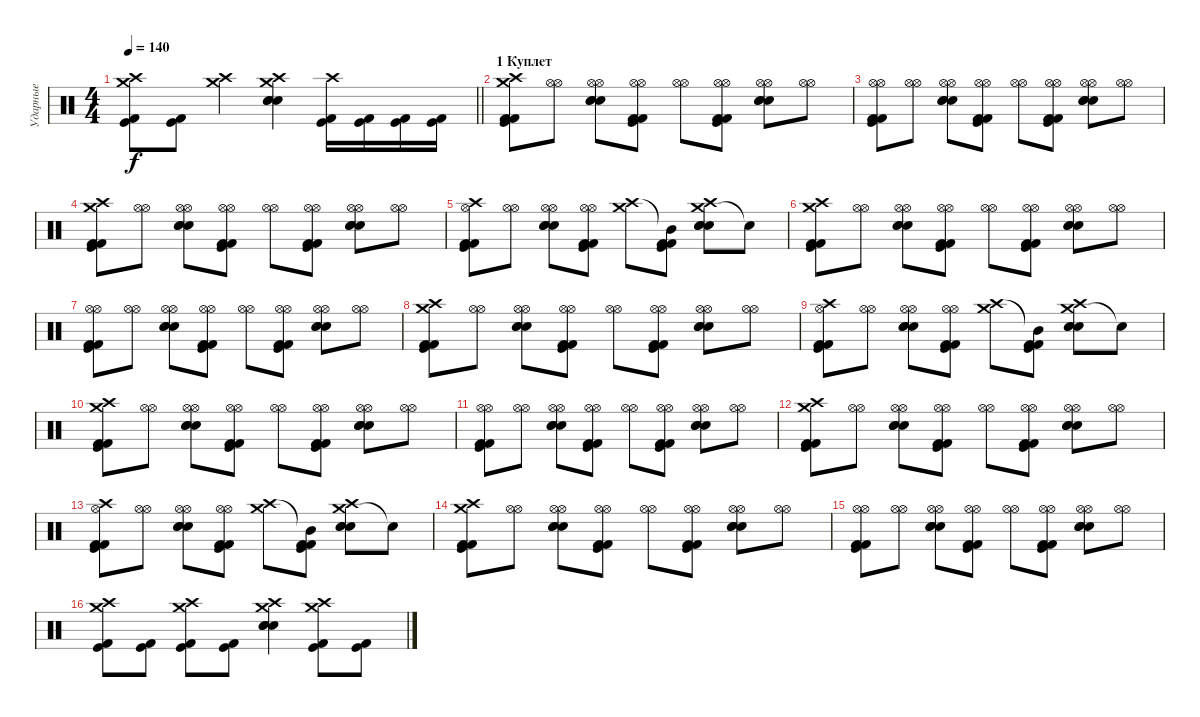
\track ("Ударные" "Ударные") {instrument percussion}
\staff {score}
\articulation defaults
\ts (4 4)
\tempo 140
\clef neutral
\barLineRight lightlight
\ks c
("Crash high (hit)" "Crash medium (hit)" "Kick (hit)" "Kick (hit) 2").8{dy f} ("Kick (hit)" "Kick (hit) 2").8 ("Crash high (hit)" "Crash medium (hit)").4 ("Crash high (hit)" "Crash medium (hit)" "Electric Snare (hit)" "Snare (hit) 2" "Electric Snare (hit)").4 ("Crash high (hit)" "Kick (hit)" "Kick (hit) 2").16 ("Kick (hit)" "Kick (hit) 2").16 ("Kick (hit)" "Kick (hit) 2").16 ("Kick (hit)" "Kick (hit) 2").16 |
\section ("" "1 Куплет")
("Crash high (hit)" "Crash medium (hit)" "Kick (hit) 2" "Kick (hit)" "Kick (hit) 2").8 ("Hi-Hat (open)" "Hi-Hat (open)").8 ("Hi-Hat (open)" "Hi-Hat (open)" "Electric Snare (hit)" "Snare (hit) 2" "Electric Snare (hit)").8 ("Hi-Hat (open)" "Hi-Hat (open)" "Kick (hit) 2" "Kick (hit)" "Kick (hit) 2").8 ("Hi-Hat (open)" "Hi-Hat (open)").8 ("Hi-Hat (open)" "Hi-Hat (open)" "Kick (hit) 2" "Kick (hit)" "Kick (hit) 2").8 ("Hi-Hat (open)" "Hi-Hat (open)" "Electric Snare (hit)" "Snare (hit) 2" "Electric Snare (hit)").8 ("Hi-Hat (open)" "Hi-Hat (open)").8 |
("Hi-Hat (open)" "Hi-Hat (open)" "Kick (hit) 2" "Kick (hit)" "Kick (hit) 2").8 ("Hi-Hat (open)" "Hi-Hat (open)").8 ("Hi-Hat (open)" "Hi-Hat (open)" "Electric Snare (hit)" "Snare (hit) 2" "Electric Snare (hit)").8 ("Hi-Hat (open)" "Hi-Hat (open)" "Kick (hit) 2" "Kick (hit)" "Kick (hit) 2").8 ("Hi-Hat (open)" "Hi-Hat (open)").8 ("Hi-Hat (open)" "Hi-Hat (open)" "Kick (hit) 2" "Kick (hit)" "Kick (hit) 2").8 ("Hi-Hat (open)" "Hi-Hat (open)" "Electric Snare (hit)" "Snare (hit) 2" "Electric Snare (hit)").8 ("Hi-Hat (open)" "Hi-Hat (open)").8 |
("Crash high (hit)" "Crash medium (hit)" "Kick (hit) 2" "Kick (hit)" "Kick (hit) 2").8 ("Hi-Hat (open)" "Hi-Hat (open)").8 ("Hi-Hat (open)" "Hi-Hat (open)" "Electric Snare (hit)" "Snare (hit) 2" "Electric Snare (hit)").8 ("Hi-Hat (open)" "Hi-Hat (open)" "Kick (hit) 2" "Kick (hit)" "Kick (hit) 2").8 ("Hi-Hat (open)" "Hi-Hat (open)").8 ("Hi-Hat (open)" "Hi-Hat (open)" "Kick (hit) 2" "Kick (hit)" "Kick (hit) 2").8 ("Hi-Hat (open)" "Hi-Hat (open)" "Electric Snare (hit)" "Snare (hit) 2" "Electric Snare (hit)").8 ("Hi-Hat (open)" "Hi-Hat (open)").8 |
("Crash high (hit)" "Hi-Hat (open)" "Kick (hit) 2" "Kick (hit)" "Kick (hit) 2").8 ("Hi-Hat (open)" "Hi-Hat (open)").8 ("Hi-Hat (open)" "Hi-Hat (open)" "Electric Snare (hit)" "Snare (hit) 2" "Electric Snare (hit)").8 ("Hi-Hat (open)" "Hi-Hat (open)" "Kick (hit) 2" "Kick (hit)" "Kick (hit) 2").8 ("Crash high (hit)" "Crash medium (hit)").8 ("Mid Tom (hit)"{t} "Kick (hit) 2" "Kick (hit)" "Kick (hit) 2").8 ("Crash medium (hit)" "Crash high (hit)" "Electric Snare (hit)" "Snare (hit) 2" "Electric Snare (hit)").8 "Snare (hit)"{t}.8 |
("Crash high (hit)" "Crash medium (hit)" "Kick (hit) 2" "Kick (hit)" "Kick (hit) 2").8 ("Hi-Hat (open)" "Hi-Hat (open)").8 ("Hi-Hat (open)" "Hi-Hat (open)" "Electric Snare (hit)" "Snare (hit) 2" "Electric Snare (hit)").8 ("Hi-Hat (open)" "Hi-Hat (open)" "Kick (hit) 2" "Kick (hit)" "Kick (hit) 2").8 ("Hi-Hat (open)" "Hi-Hat (open)").8 ("Hi-Hat (open)" "Hi-Hat (open)" "Kick (hit) 2" "Kick (hit)" "Kick (hit) 2").8 ("Hi-Hat (open)" "Hi-Hat (open)" "Electric Snare (hit)" "Snare (hit) 2" "Electric Snare (hit)").8 ("Hi-Hat (open)" "Hi-Hat (open)").8 |
("Hi-Hat (open)" "Hi-Hat (open)" "Kick (hit) 2" "Kick (hit)" "Kick (hit) 2").8 ("Hi-Hat (open)" "Hi-Hat (open)").8 ("Hi-Hat (open)" "Hi-Hat (open)" "Electric Snare (hit)" "Snare (hit) 2" "Electric Snare (hit)").8 ("Hi-Hat (open)" "Hi-Hat (open)" "Kick (hit) 2" "Kick (hit)" "Kick (hit) 2").8 ("Hi-Hat (open)" "Hi-Hat (open)").8 ("Hi-Hat (open)" "Hi-Hat (open)" "Kick (hit) 2" "Kick (hit)" "Kick (hit) 2").8 ("Hi-Hat (open)" "Hi-Hat (open)" "Electric Snare (hit)" "Snare (hit) 2" "Electric Snare (hit)").8 ("Hi-Hat (open)" "Hi-Hat (open)").8 |
("Crash high (hit)" "Crash medium (hit)" "Kick (hit) 2" "Kick (hit)" "Kick (hit) 2").8 ("Hi-Hat (open)" "Hi-Hat (open)").8 ("Hi-Hat (open)" "Hi-Hat (open)" "Electric Snare (hit)" "Snare (hit) 2" "Electric Snare (hit)").8 ("Hi-Hat (open)" "Hi-Hat (open)" "Kick (hit) 2" "Kick (hit)" "Kick (hit) 2").8 ("Hi-Hat (open)" "Hi-Hat (open)").8 ("Hi-Hat (open)" "Hi-Hat (open)" "Kick (hit) 2" "Kick (hit)" "Kick (hit) 2").8 ("Hi-Hat (open)" "Hi-Hat (open)" "Electric Snare (hit)" "Snare (hit) 2" "Electric Snare (hit)").8 ("Hi-Hat (open)" "Hi-Hat (open)").8 |
("Crash high (hit)" "Hi-Hat (open)" "Kick (hit) 2" "Kick (hit)" "Kick (hit) 2").8 ("Hi-Hat (open)" "Hi-Hat (open)").8 ("Hi-Hat (open)" "Hi-Hat (open)" "Electric Snare (hit)" "Snare (hit) 2" "Electric Snare (hit)").8 ("Hi-Hat (open)" "Hi-Hat (open)" "Kick (hit) 2" "Kick (hit)" "Kick (hit) 2").8 ("Crash high (hit)" "Crash medium (hit)").8 ("Mid Tom (hit)"{t} "Kick (hit) 2" "Kick (hit)" "Kick (hit) 2").8 ("Crash medium (hit)" "Crash high (hit)" "Electric Snare (hit)" "Snare (hit) 2" "Electric Snare (hit)").8 "Snare (hit)"{t}.8 |
("Crash high (hit)" "Crash medium (hit)" "Kick (hit) 2" "Kick (hit)" "Kick (hit) 2").8 ("Hi-Hat (open)" "Hi-Hat (open)").8 ("Hi-Hat (open)" "Hi-Hat (open)" "Electric Snare (hit)" "Snare (hit) 2" "Electric Snare (hit)").8 ("Hi-Hat (open)" "Hi-Hat (open)" "Kick (hit) 2" "Kick (hit)" "Kick (hit) 2").8 ("Hi-Hat (open)" "Hi-Hat (open)").8 ("Hi-Hat (open)" "Hi-Hat (open)" "Kick (hit) 2" "Kick (hit)" "Kick (hit) 2").8 ("Hi-Hat (open)" "Hi-Hat (open)" "Electric Snare (hit)" "Snare (hit) 2" "Electric Snare (hit)").8 ("Hi-Hat (open)" "Hi-Hat (open)").8 |
("Hi-Hat (open)" "Hi-Hat (open)" "Kick (hit) 2" "Kick (hit)" "Kick (hit) 2").8 ("Hi-Hat (open)" "Hi-Hat (open)").8 ("Hi-Hat (open)" "Hi-Hat (open)" "Electric Snare (hit)" "Snare (hit) 2" "Electric Snare (hit)").8 ("Hi-Hat (open)" "Hi-Hat (open)" "Kick (hit) 2" "Kick (hit)" "Kick (hit) 2").8 ("Hi-Hat (open)" "Hi-Hat (open)").8 ("Hi-Hat (open)" "Hi-Hat (open)" "Kick (hit) 2" "Kick (hit)" "Kick (hit) 2").8 ("Hi-Hat (open)" "Hi-Hat (open)" "Electric Snare (hit)" "Snare (hit) 2" "Electric Snare (hit)").8 ("Hi-Hat (open)" "Hi-Hat (open)").8 |
("Crash high (hit)" "Crash medium (hit)" "Kick (hit) 2" "Kick (hit)" "Kick (hit) 2").8 ("Hi-Hat (open)" "Hi-Hat (open)").8 ("Hi-Hat (open)" "Hi-Hat (open)" "Electric Snare (hit)" "Snare (hit) 2" "Electric Snare (hit)").8 ("Hi-Hat (open)" "Hi-Hat (open)" "Kick (hit) 2" "Kick (hit)" "Kick (hit) 2").8 ("Hi-Hat (open)" "Hi-Hat (open)").8 ("Hi-Hat (open)" "Hi-Hat (open)" "Kick (hit) 2" "Kick (hit)" "Kick (hit) 2").8 ("Hi-Hat (open)" "Hi-Hat (open)" "Electric Snare (hit)" "Snare (hit) 2" "Electric Snare (hit)").8 ("Hi-Hat (open)" "Hi-Hat (open)").8 |
("Crash high (hit)" "Hi-Hat (open)" "Kick (hit) 2" "Kick (hit)" "Kick (hit) 2").8 ("Hi-Hat (open)" "Hi-Hat (open)").8 ("Hi-Hat (open)" "Hi-Hat (open)" "Electric Snare (hit)" "Snare (hit) 2" "Electric Snare (hit)").8 ("Hi-Hat (open)" "Hi-Hat (open)" "Kick (hit) 2" "Kick (hit)" "Kick (hit) 2").8 ("Crash high (hit)" "Crash medium (hit)").8 ("Mid Tom (hit)"{t} "Kick (hit) 2" "Kick (hit)" "Kick (hit) 2").8 ("Crash medium (hit)" "Crash high (hit)" "Electric Snare (hit)" "Snare (hit) 2" "Electric Snare (hit)").8 "Snare (hit)"{t}.8 |
("Crash high (hit)" "Crash medium (hit)" "Kick (hit) 2" "Kick (hit)" "Kick (hit) 2").8 ("Hi-Hat (open)" "Hi-Hat (open)").8 ("Hi-Hat (open)" "Hi-Hat (open)" "Electric Snare (hit)" "Snare (hit) 2" "Electric Snare (hit)").8 ("Hi-Hat (open)" "Hi-Hat (open)" "Kick (hit) 2" "Kick (hit)" "Kick (hit) 2").8 ("Hi-Hat (open)" "Hi-Hat (open)").8 ("Hi-Hat (open)" "Hi-Hat (open)" "Kick (hit) 2" "Kick (hit)" "Kick (hit) 2").8 ("Hi-Hat (open)" "Hi-Hat (open)" "Electric Snare (hit)" "Snare (hit) 2" "Electric Snare (hit)").8 ("Hi-Hat (open)" "Hi-Hat (open)").8 |
("Hi-Hat (open)" "Hi-Hat (open)" "Kick (hit) 2" "Kick (hit)" "Kick (hit) 2").8 ("Hi-Hat (open)" "Hi-Hat (open)").8 ("Hi-Hat (open)" "Hi-Hat (open)" "Electric Snare (hit)" "Snare (hit) 2" "Electric Snare (hit)").8 ("Hi-Hat (open)" "Hi-Hat (open)" "Kick (hit) 2" "Kick (hit)" "Kick (hit) 2").8 ("Hi-Hat (open)" "Hi-Hat (open)").8 ("Hi-Hat (open)" "Hi-Hat (open)" "Kick (hit) 2" "Kick (hit)" "Kick (hit) 2").8 ("Hi-Hat (open)" "Hi-Hat (open)" "Electric Snare (hit)" "Snare (hit) 2" "Electric Snare (hit)").8 ("Hi-Hat (open)" "Hi-Hat (open)").8 |
("Crash high (hit)" "Crash medium (hit)" "Kick (hit)" "Kick (hit) 2").8 ("Kick (hit)" "Kick (hit) 2").8 ("Crash high (hit)" "Crash medium (hit)" "Kick (hit)" "Kick (hit) 2").8 ("Kick (hit)" "Kick (hit) 2").8 ("Crash high (hit)" "Crash medium (hit)" "Snare (hit) 2" "Electric Snare (hit)" "Electric Snare (hit)").4 ("Crash high (hit)" "Crash medium (hit)" "Kick (hit)" "Kick (hit) 2").8 ("Kick (hit)" "Kick (hit) 2").8
